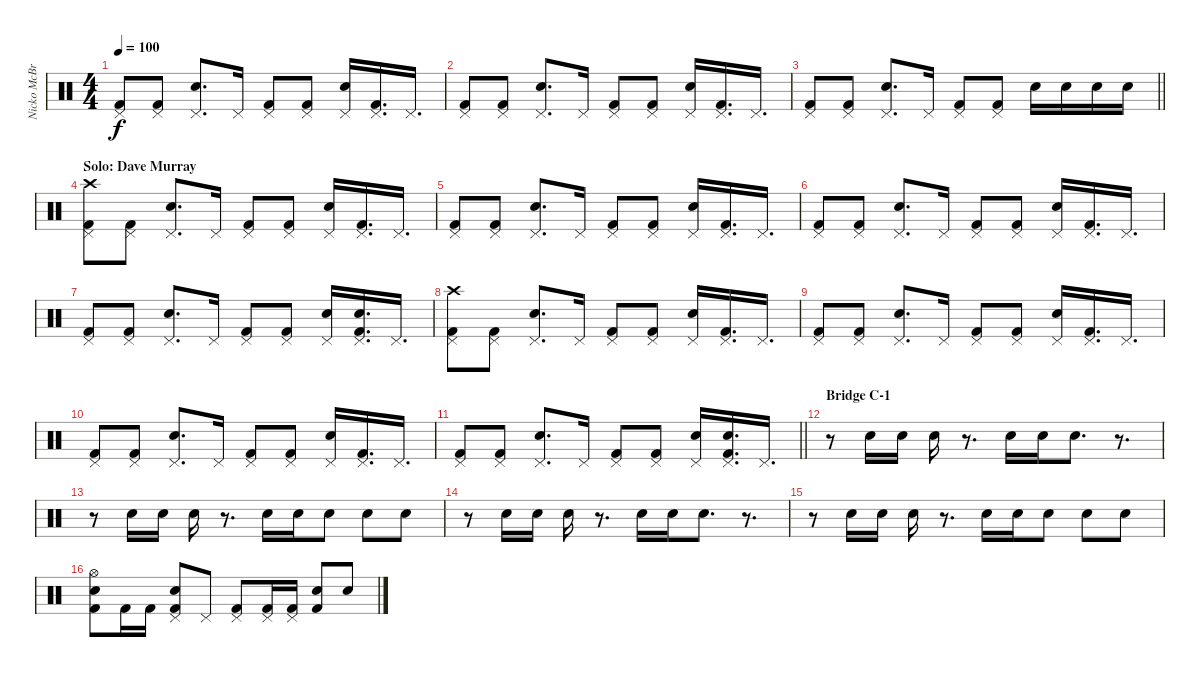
\track ("Nicko McBrain" "Nicko McBr") {instrument percussion}
\staff {score}
\articulation defaults
\ts (4 4)
\tempo 100
\clef neutral
\ks c
("Pedal Hi-Hat (hit)" "Kick (hit) 2").8{dy f} ("Pedal Hi-Hat (hit)" "Kick (hit) 2").8 ("Electric Snare (hit)" "Pedal Hi-Hat (hit)").8{d} "Pedal Hi-Hat (hit)".16 ("Pedal Hi-Hat (hit)" "Kick (hit) 2").8 ("Pedal Hi-Hat (hit)" "Kick (hit) 2").8 ("Electric Snare (hit)" "Pedal Hi-Hat (hit)").16 ("Pedal Hi-Hat (hit)" "Kick (hit) 2").16{d} "Pedal Hi-Hat (hit)".16{d} |
("Pedal Hi-Hat (hit)" "Kick (hit) 2").8 ("Pedal Hi-Hat (hit)" "Kick (hit) 2").8 ("Electric Snare (hit)" "Pedal Hi-Hat (hit)").8{d} "Pedal Hi-Hat (hit)".16 ("Pedal Hi-Hat (hit)" "Kick (hit) 2").8 ("Pedal Hi-Hat (hit)" "Kick (hit) 2").8 ("Electric Snare (hit)" "Pedal Hi-Hat (hit)").16 ("Pedal Hi-Hat (hit)" "Kick (hit) 2").16{d} "Pedal Hi-Hat (hit)".16{d} |
\barLineRight lightlight
("Pedal Hi-Hat (hit)" "Kick (hit) 2").8 ("Pedal Hi-Hat (hit)" "Kick (hit) 2").8 ("Electric Snare (hit)" "Pedal Hi-Hat (hit)").8{d} "Pedal Hi-Hat (hit)".16 ("Pedal Hi-Hat (hit)" "Kick (hit) 2").8 ("Pedal Hi-Hat (hit)" "Kick (hit) 2").8 "Electric Snare (hit)".16 "Electric Snare (hit)".16 "Electric Snare (hit)".16 "Electric Snare (hit)".16 |
\section ("" "Solo: Dave Murray")
("Pedal Hi-Hat (hit)" "Crash high (hit)" "Kick (hit) 2").8 ("Pedal Hi-Hat (hit)" "Kick (hit) 2").8 ("Electric Snare (hit)" "Pedal Hi-Hat (hit)").8{d} "Pedal Hi-Hat (hit)".16 ("Pedal Hi-Hat (hit)" "Kick (hit) 2").8 ("Pedal Hi-Hat (hit)" "Kick (hit) 2").8 ("Electric Snare (hit)" "Pedal Hi-Hat (hit)").16 ("Pedal Hi-Hat (hit)" "Kick (hit) 2").16{d} "Pedal Hi-Hat (hit)".16{d} |
("Pedal Hi-Hat (hit)" "Kick (hit) 2").8 ("Pedal Hi-Hat (hit)" "Kick (hit) 2").8 ("Electric Snare (hit)" "Pedal Hi-Hat (hit)").8{d} "Pedal Hi-Hat (hit)".16 ("Pedal Hi-Hat (hit)" "Kick (hit) 2").8 ("Pedal Hi-Hat (hit)" "Kick (hit) 2").8 ("Electric Snare (hit)" "Pedal Hi-Hat (hit)").16 ("Pedal Hi-Hat (hit)" "Kick (hit) 2").16{d} "Pedal Hi-Hat (hit)".16{d} |
("Pedal Hi-Hat (hit)" "Kick (hit) 2").8 ("Pedal Hi-Hat (hit)" "Kick (hit) 2").8 ("Electric Snare (hit)" "Pedal Hi-Hat (hit)").8{d} "Pedal Hi-Hat (hit)".16 ("Pedal Hi-Hat (hit)" "Kick (hit) 2").8 ("Pedal Hi-Hat (hit)" "Kick (hit) 2").8 ("Electric Snare (hit)" "Pedal Hi-Hat (hit)").16 ("Pedal Hi-Hat (hit)" "Kick (hit) 2").16{d} "Pedal Hi-Hat (hit)".16{d} |
("Pedal Hi-Hat (hit)" "Kick (hit) 2").8 ("Pedal Hi-Hat (hit)" "Kick (hit) 2").8 ("Electric Snare (hit)" "Pedal Hi-Hat (hit)").8{d} "Pedal Hi-Hat (hit)".16 ("Pedal Hi-Hat (hit)" "Kick (hit) 2").8 ("Pedal Hi-Hat (hit)" "Kick (hit) 2").8 ("Electric Snare (hit)" "Pedal Hi-Hat (hit)").16 ("Pedal Hi-Hat (hit)" "Electric Snare (hit)" "Kick (hit) 2").16{d} "Pedal Hi-Hat (hit)".16{d} |
("Pedal Hi-Hat (hit)" "Crash high (hit)" "Kick (hit) 2").8 ("Pedal Hi-Hat (hit)" "Kick (hit) 2").8 ("Electric Snare (hit)" "Pedal Hi-Hat (hit)").8{d} "Pedal Hi-Hat (hit)".16 ("Pedal Hi-Hat (hit)" "Kick (hit) 2").8 ("Pedal Hi-Hat (hit)" "Kick (hit) 2").8 ("Electric Snare (hit)" "Pedal Hi-Hat (hit)").16 ("Pedal Hi-Hat (hit)" "Kick (hit) 2").16{d} "Pedal Hi-Hat (hit)".16{d} |
("Pedal Hi-Hat (hit)" "Kick (hit) 2").8 ("Pedal Hi-Hat (hit)" "Kick (hit) 2").8 ("Electric Snare (hit)" "Pedal Hi-Hat (hit)").8{d} "Pedal Hi-Hat (hit)".16 ("Pedal Hi-Hat (hit)" "Kick (hit) 2").8 ("Pedal Hi-Hat (hit)" "Kick (hit) 2").8 ("Electric Snare (hit)" "Pedal Hi-Hat (hit)").16 ("Pedal Hi-Hat (hit)" "Kick (hit) 2").16{d} "Pedal Hi-Hat (hit)".16{d} |
("Pedal Hi-Hat (hit)" "Kick (hit) 2").8 ("Pedal Hi-Hat (hit)" "Kick (hit) 2").8 ("Electric Snare (hit)" "Pedal Hi-Hat (hit)").8{d} "Pedal Hi-Hat (hit)".16 ("Pedal Hi-Hat (hit)" "Kick (hit) 2").8 ("Pedal Hi-Hat (hit)" "Kick (hit) 2").8 ("Electric Snare (hit)" "Pedal Hi-Hat (hit)").16 ("Pedal Hi-Hat (hit)" "Kick (hit) 2").16{d} "Pedal Hi-Hat (hit)".16{d} |
\barLineRight lightlight
("Pedal Hi-Hat (hit)" "Kick (hit) 2").8 ("Pedal Hi-Hat (hit)" "Kick (hit) 2").8 ("Electric Snare (hit)" "Pedal Hi-Hat (hit)").8{d} "Pedal Hi-Hat (hit)".16 ("Pedal Hi-Hat (hit)" "Kick (hit) 2").8 ("Pedal Hi-Hat (hit)" "Kick (hit) 2").8 ("Electric Snare (hit)" "Pedal Hi-Hat (hit)").16 ("Pedal Hi-Hat (hit)" "Electric Snare (hit)" "Kick (hit) 2").16{d} "Pedal Hi-Hat (hit)".16{d} |
\section ("" "Bridge C-1")
r.8 "Electric Snare (hit)".16 "Electric Snare (hit)".16 "Electric Snare (hit)".16 r.8{d} "Electric Snare (hit)".16 "Electric Snare (hit)".16 "Electric Snare (hit)".8{d} r.8{d} |
r.8 "Electric Snare (hit)".16 "Electric Snare (hit)".16 "Electric Snare (hit)".16 r.8{d} "Electric Snare (hit)".16 "Electric Snare (hit)".16 "Electric Snare (hit)".8 "Electric Snare (hit)".8 "Electric Snare (hit)".8 |
r.8 "Electric Snare (hit)".16 "Electric Snare (hit)".16 "Electric Snare (hit)".16 r.8{d} "Electric Snare (hit)".16 "Electric Snare (hit)".16 "Electric Snare (hit)".8{d} r.8{d} |
r.8 "Electric Snare (hit)".16 "Electric Snare (hit)".16 "Electric Snare (hit)".16 r.8{d} "Electric Snare (hit)".16 "Electric Snare (hit)".16 "Electric Snare (hit)".8 "Electric Snare (hit)".8 "Electric Snare (hit)".8 |
("Hi-Hat (open)" "Electric Snare (hit)" "Kick (hit) 2").8 "Kick (hit) 2".16 "Kick (hit) 2".16 ("Electric Snare (hit)" "Pedal Hi-Hat (hit)" "Kick (hit) 2").8 "Pedal Hi-Hat (hit)".8 ("Pedal Hi-Hat (hit)" "Kick (hit) 2").8 ("Pedal Hi-Hat (hit)" "Kick (hit) 2").16 ("Pedal Hi-Hat (hit)" "Kick (hit) 2").16 ("Electric Snare (hit)" "Kick (hit) 2").8 "Electric Snare (hit)".8
